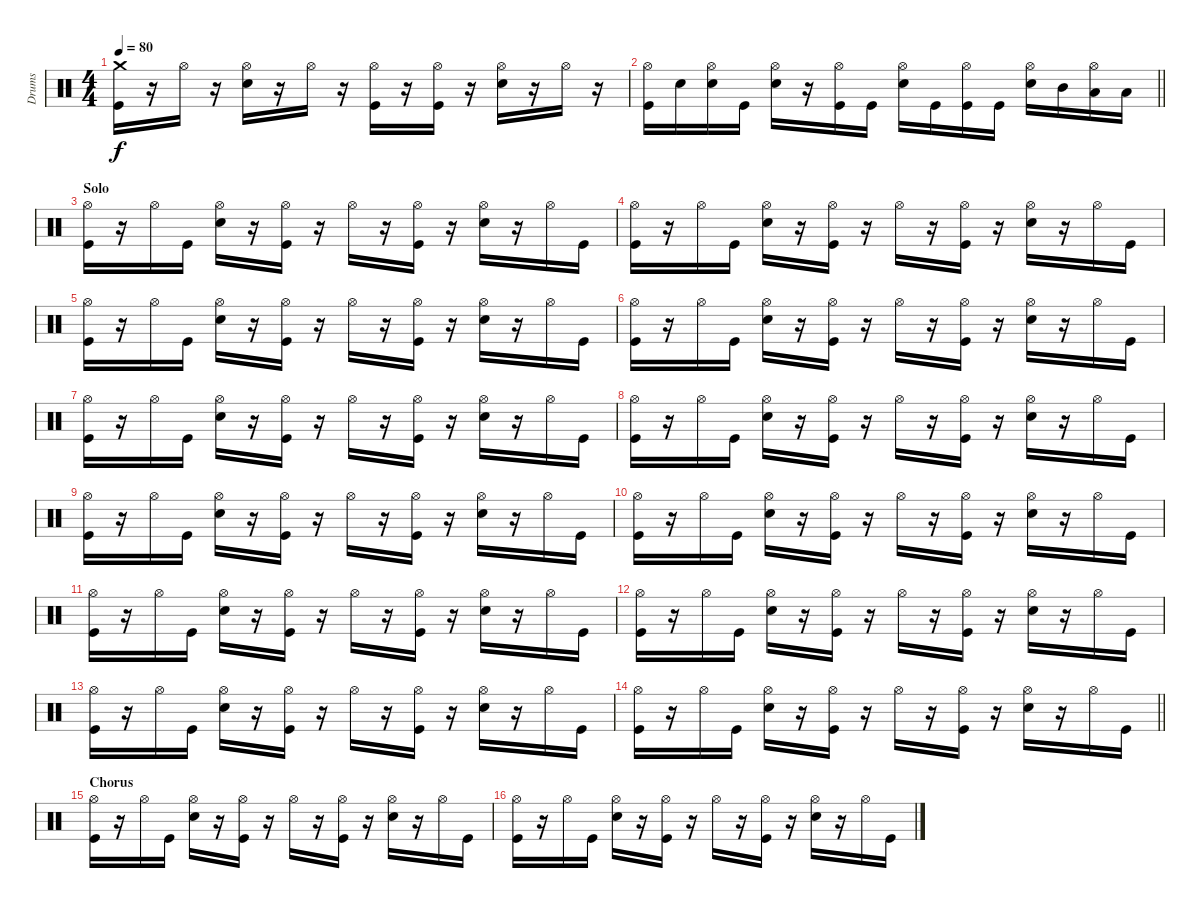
\track ("Drums" "Drums") {instrument percussion}
\staff {score}
\articulation defaults
\ts (4 4)
\tempo 80
\clef neutral
\ks c
("Crash medium (hit)" "Kick (hit)").16{dy f} r.16 "Hi-Hat (open)".16 r.16 ("Hi-Hat (open)" "Electric Snare (hit)").16 r.16 "Hi-Hat (open)".16 r.16 ("Hi-Hat (open)" "Kick (hit)").16 r.16 ("Hi-Hat (open)" "Kick (hit)").16 r.16 ("Hi-Hat (open)" "Electric Snare (hit)").16 r.16 "Hi-Hat (open)".16 r.16 |
\barLineRight lightlight
("Hi-Hat (open)" "Kick (hit)").16 "Electric Snare (hit)".16 ("Hi-Hat (open)" "Electric Snare (hit)").16 "Kick (hit)".16 ("Hi-Hat (open)" "Electric Snare (hit)").16 r.16 ("Hi-Hat (open)" "Kick (hit)").16 "Kick (hit)".16 ("Hi-Hat (open)" "Electric Snare (hit)").16 "Kick (hit)".16 ("Hi-Hat (open)" "Kick (hit)").16 "Kick (hit)".16 ("Hi-Hat (open)" "Electric Snare (hit)").16 "Mid Tom (hit)".16 ("Hi-Hat (open)" "Low Tom (hit)").16 "Low Floor Tom (hit)".16 |
\section ("" "Solo")
("Hi-Hat (open)" "Kick (hit)").16 r.16 "Hi-Hat (open)".16 "Kick (hit)".16 ("Hi-Hat (open)" "Electric Snare (hit)").16 r.16 ("Hi-Hat (open)" "Kick (hit)").16 r.16 "Hi-Hat (open)".16 r.16 ("Hi-Hat (open)" "Kick (hit)").16 r.16 ("Hi-Hat (open)" "Electric Snare (hit)").16 r.16 "Hi-Hat (open)".16 "Kick (hit)".16 |
("Hi-Hat (open)" "Kick (hit)").16 r.16 "Hi-Hat (open)".16 "Kick (hit)".16 ("Hi-Hat (open)" "Electric Snare (hit)").16 r.16 ("Hi-Hat (open)" "Kick (hit)").16 r.16 "Hi-Hat (open)".16 r.16 ("Hi-Hat (open)" "Kick (hit)").16 r.16 ("Hi-Hat (open)" "Electric Snare (hit)").16 r.16 "Hi-Hat (open)".16 "Kick (hit)".16 |
("Hi-Hat (open)" "Kick (hit)").16 r.16 "Hi-Hat (open)".16 "Kick (hit)".16 ("Hi-Hat (open)" "Electric Snare (hit)").16 r.16 ("Hi-Hat (open)" "Kick (hit)").16 r.16 "Hi-Hat (open)".16 r.16 ("Hi-Hat (open)" "Kick (hit)").16 r.16 ("Hi-Hat (open)" "Electric Snare (hit)").16 r.16 "Hi-Hat (open)".16 "Kick (hit)".16 |
("Hi-Hat (open)" "Kick (hit)").16 r.16 "Hi-Hat (open)".16 "Kick (hit)".16 ("Hi-Hat (open)" "Electric Snare (hit)").16 r.16 ("Hi-Hat (open)" "Kick (hit)").16 r.16 "Hi-Hat (open)".16 r.16 ("Hi-Hat (open)" "Kick (hit)").16 r.16 ("Hi-Hat (open)" "Electric Snare (hit)").16 r.16 "Hi-Hat (open)".16 "Kick (hit)".16 |
("Hi-Hat (open)" "Kick (hit)").16 r.16 "Hi-Hat (open)".16 "Kick (hit)".16 ("Hi-Hat (open)" "Electric Snare (hit)").16 r.16 ("Hi-Hat (open)" "Kick (hit)").16 r.16 "Hi-Hat (open)".16 r.16 ("Hi-Hat (open)" "Kick (hit)").16 r.16 ("Hi-Hat (open)" "Electric Snare (hit)").16 r.16 "Hi-Hat (open)".16 "Kick (hit)".16 |
("Hi-Hat (open)" "Kick (hit)").16 r.16 "Hi-Hat (open)".16 "Kick (hit)".16 ("Hi-Hat (open)" "Electric Snare (hit)").16 r.16 ("Hi-Hat (open)" "Kick (hit)").16 r.16 "Hi-Hat (open)".16 r.16 ("Hi-Hat (open)" "Kick (hit)").16 r.16 ("Hi-Hat (open)" "Electric Snare (hit)").16 r.16 "Hi-Hat (open)".16 "Kick (hit)".16 |
("Hi-Hat (open)" "Kick (hit)").16 r.16 "Hi-Hat (open)".16 "Kick (hit)".16 ("Hi-Hat (open)" "Electric Snare (hit)").16 r.16 ("Hi-Hat (open)" "Kick (hit)").16 r.16 "Hi-Hat (open)".16 r.16 ("Hi-Hat (open)" "Kick (hit)").16 r.16 ("Hi-Hat (open)" "Electric Snare (hit)").16 r.16 "Hi-Hat (open)".16 "Kick (hit)".16 |
("Hi-Hat (open)" "Kick (hit)").16 r.16 "Hi-Hat (open)".16 "Kick (hit)".16 ("Hi-Hat (open)" "Electric Snare (hit)").16 r.16 ("Hi-Hat (open)" "Kick (hit)").16 r.16 "Hi-Hat (open)".16 r.16 ("Hi-Hat (open)" "Kick (hit)").16 r.16 ("Hi-Hat (open)" "Electric Snare (hit)").16 r.16 "Hi-Hat (open)".16 "Kick (hit)".16 |
("Hi-Hat (open)" "Kick (hit)").16 r.16 "Hi-Hat (open)".16 "Kick (hit)".16 ("Hi-Hat (open)" "Electric Snare (hit)").16 r.16 ("Hi-Hat (open)" "Kick (hit)").16 r.16 "Hi-Hat (open)".16 r.16 ("Hi-Hat (open)" "Kick (hit)").16 r.16 ("Hi-Hat (open)" "Electric Snare (hit)").16 r.16 "Hi-Hat (open)".16 "Kick (hit)".16 |
("Hi-Hat (open)" "Kick (hit)").16 r.16 "Hi-Hat (open)".16 "Kick (hit)".16 ("Hi-Hat (open)" "Electric Snare (hit)").16 r.16 ("Hi-Hat (open)" "Kick (hit)").16 r.16 "Hi-Hat (open)".16 r.16 ("Hi-Hat (open)" "Kick (hit)").16 r.16 ("Hi-Hat (open)" "Electric Snare (hit)").16 r.16 "Hi-Hat (open)".16 "Kick (hit)".16 |
("Hi-Hat (open)" "Kick (hit)").16 r.16 "Hi-Hat (open)".16 "Kick (hit)".16 ("Hi-Hat (open)" "Electric Snare (hit)").16 r.16 ("Hi-Hat (open)" "Kick (hit)").16 r.16 "Hi-Hat (open)".16 r.16 ("Hi-Hat (open)" "Kick (hit)").16 r.16 ("Hi-Hat (open)" "Electric Snare (hit)").16 r.16 "Hi-Hat (open)".16 "Kick (hit)".16 |
\barLineRight lightlight
("Hi-Hat (open)" "Kick (hit)").16 r.16 "Hi-Hat (open)".16 "Kick (hit)".16 ("Hi-Hat (open)" "Electric Snare (hit)").16 r.16 ("Hi-Hat (open)" "Kick (hit)").16 r.16 "Hi-Hat (open)".16 r.16 ("Hi-Hat (open)" "Kick (hit)").16 r.16 ("Hi-Hat (open)" "Electric Snare (hit)").16 r.16 "Hi-Hat (open)".16 "Kick (hit)".16 |
\section ("" "Chorus")
("Hi-Hat (open)" "Kick (hit)").16 r.16 "Hi-Hat (open)".16 "Kick (hit)".16 ("Hi-Hat (open)" "Electric Snare (hit)").16 r.16 ("Hi-Hat (open)" "Kick (hit)").16 r.16 "Hi-Hat (open)".16 r.16 ("Hi-Hat (open)" "Kick (hit)").16 r.16 ("Hi-Hat (open)" "Electric Snare (hit)").16 r.16 "Hi-Hat (open)".16 "Kick (hit)".16 |
("Hi-Hat (open)" "Kick (hit)").16 r.16 "Hi-Hat (open)".16 "Kick (hit)".16 ("Hi-Hat (open)" "Electric Snare (hit)").16 r.16 ("Hi-Hat (open)" "Kick (hit)").16 r.16 "Hi-Hat (open)".16 r.16 ("Hi-Hat (open)" "Kick (hit)").16 r.16 ("Hi-Hat (open)" "Electric Snare (hit)").16 r.16 "Hi-Hat (open)".16 "Kick (hit)".16
